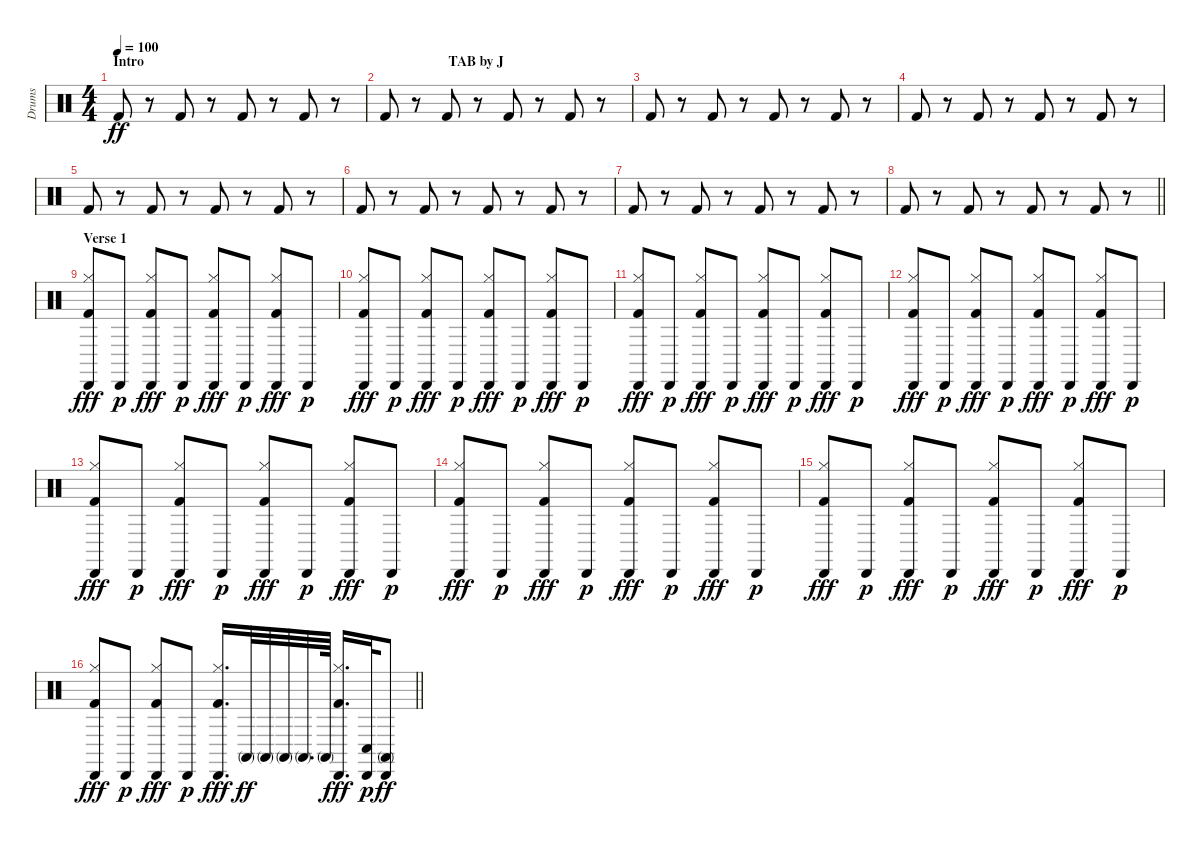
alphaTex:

\track ("Drums" "Drums") {instrument percussion}
\staff {score}
\articulation defaults
\ts (4 4)
\section ("" "Intro                                                                                       TAB by J")
\tempo 100
\clef neutral
\ks c "Kick (hit) 2".8{dy ff}
r.8 "Kick (hit) 2".8 r.8 "Kick (hit) 2".8 r.8 "Kick (hit) 2".8 r.8 |
"Kick (hit) 2".8 r.8 "Kick (hit) 2".8 r.8 "Kick (hit) 2".8 r.8 "Kick (hit) 2".8 r.8 |
"Kick (hit) 2".8 r.8 "Kick (hit) 2".8 r.8 "Kick (hit) 2".8 r.8 "Kick (hit) 2".8 r.8 |
"Kick (hit) 2".8 r.8 "Kick (hit) 2".8 r.8 "Kick (hit) 2".8 r.8 "Kick (hit) 2".8 r.8 |
"Kick (hit) 2".8 r.8 "Kick (hit) 2".8 r.8 "Kick (hit) 2".8 r.8 "Kick (hit) 2".8 r.8 |
"Kick (hit) 2".8 r.8 "Kick (hit) 2".8 r.8 "Kick (hit) 2".8 r.8 "Kick (hit) 2".8 r.8 |
"Kick (hit) 2".8 r.8 "Kick (hit) 2".8 r.8 "Kick (hit) 2".8 r.8 "Kick (hit) 2".8 r.8 |
\barLineRight lightlight "Kick (hit) 2".8
r.8 "Kick (hit) 2".8 r.8 "Kick (hit) 2".8 r.8 "Kick (hit) 2".8 r.8 |
\section ("" "Verse 1")
("Cabasa (hit)" "Hi-Hat (closed)" "Kick (hit) 2").8{dy fff} "Cabasa (hit)".8{dy p} ("Cabasa (hit)" "Hi-Hat (closed)" "Kick (hit) 2").8{dy fff} "Cabasa (hit)".8{dy p} ("Cabasa (hit)" "Hi-Hat (closed)" "Kick (hit) 2").8{dy fff} "Cabasa (hit)".8{dy p} ("Cabasa (hit)" "Hi-Hat (closed)" "Kick (hit) 2").8{dy fff} "Cabasa (hit)".8{dy p} |
("Cabasa (hit)" "Hi-Hat (closed)" "Kick (hit) 2").8{dy fff} "Cabasa (hit)".8{dy p} ("Cabasa (hit)" "Hi-Hat (closed)" "Kick (hit) 2").8{dy fff} "Cabasa (hit)".8{dy p} ("Cabasa (hit)" "Hi-Hat (closed)" "Kick (hit) 2").8{dy fff} "Cabasa (hit)".8{dy p} ("Cabasa (hit)" "Hi-Hat (closed)" "Kick (hit) 2").8{dy fff} "Cabasa (hit)".8{dy p} |
("Cabasa (hit)" "Hi-Hat (closed)" "Kick (hit) 2").8{dy fff} "Cabasa (hit)".8{dy p} ("Cabasa (hit)" "Hi-Hat (closed)" "Kick (hit) 2").8{dy fff} "Cabasa (hit)".8{dy p} ("Cabasa (hit)" "Hi-Hat (closed)" "Kick (hit) 2").8{dy fff} "Cabasa (hit)".8{dy p} ("Cabasa (hit)" "Hi-Hat (closed)" "Kick (hit) 2").8{dy fff} "Cabasa (hit)".8{dy p} |
("Cabasa (hit)" "Hi-Hat (closed)" "Kick (hit) 2").8{dy fff} "Cabasa (hit)".8{dy p} ("Cabasa (hit)" "Hi-Hat (closed)" "Kick (hit) 2").8{dy fff} "Cabasa (hit)".8{dy p} ("Cabasa (hit)" "Hi-Hat (closed)" "Kick (hit) 2").8{dy fff} "Cabasa (hit)".8{dy p} ("Cabasa (hit)" "Hi-Hat (closed)" "Kick (hit) 2").8{dy fff} "Cabasa (hit)".8{dy p} |
("Cabasa (hit)" "Hi-Hat (closed)" "Kick (hit) 2").8{dy fff} "Cabasa (hit)".8{dy p} ("Cabasa (hit)" "Hi-Hat (closed)" "Kick (hit) 2").8{dy fff} "Cabasa (hit)".8{dy p} ("Cabasa (hit)" "Hi-Hat (closed)" "Kick (hit) 2").8{dy fff} "Cabasa (hit)".8{dy p} ("Cabasa (hit)" "Hi-Hat (closed)" "Kick (hit) 2").8{dy fff} "Cabasa (hit)".8{dy p} |
("Cabasa (hit)" "Hi-Hat (closed)" "Kick (hit) 2").8{dy fff} "Cabasa (hit)".8{dy p} ("Cabasa (hit)" "Hi-Hat (closed)" "Kick (hit) 2").8{dy fff} "Cabasa (hit)".8{dy p} ("Cabasa (hit)" "Hi-Hat (closed)" "Kick (hit) 2").8{dy fff} "Cabasa (hit)".8{dy p} ("Cabasa (hit)" "Hi-Hat (closed)" "Kick (hit) 2").8{dy fff} "Cabasa (hit)".8{dy p} |
("Cabasa (hit)" "Hi-Hat (closed)" "Kick (hit) 2").8{dy fff} "Cabasa (hit)".8{dy p} ("Cabasa (hit)" "Hi-Hat (closed)" "Kick (hit) 2").8{dy fff} "Cabasa (hit)".8{dy p} ("Cabasa (hit)" "Hi-Hat (closed)" "Kick (hit) 2").8{dy fff} "Cabasa (hit)".8{dy p} ("Cabasa (hit)" "Hi-Hat (closed)" "Kick (hit) 2").8{dy fff} "Cabasa (hit)".8{dy p} |
\barLineRight lightlight
("Cabasa (hit)" "Hi-Hat (closed)" "Kick (hit) 2").8{dy fff} "Cabasa (hit)".8{dy p} ("Cabasa (hit)" "Hi-Hat (closed)" "Kick (hit) 2").8{dy fff} "Cabasa (hit)".8{dy p} ("Cabasa (hit)" "Hi-Hat (closed)" "Kick (hit) 2").16{d dy fff} "Conga high (mute)".32{dy ff} "Conga high (mute)".32 "Conga high (mute)".32 "Conga high (mute)".32{d} "Conga high (mute)".64 ("Cabasa (hit)" "Hi-Hat (closed)" "Kick (hit) 2").16{d dy fff} ("Cabasa (hit)" "Conga low (hit)").32{dy p} ("Cabasa (hit)" "Conga high (mute)").8{dy ff}
